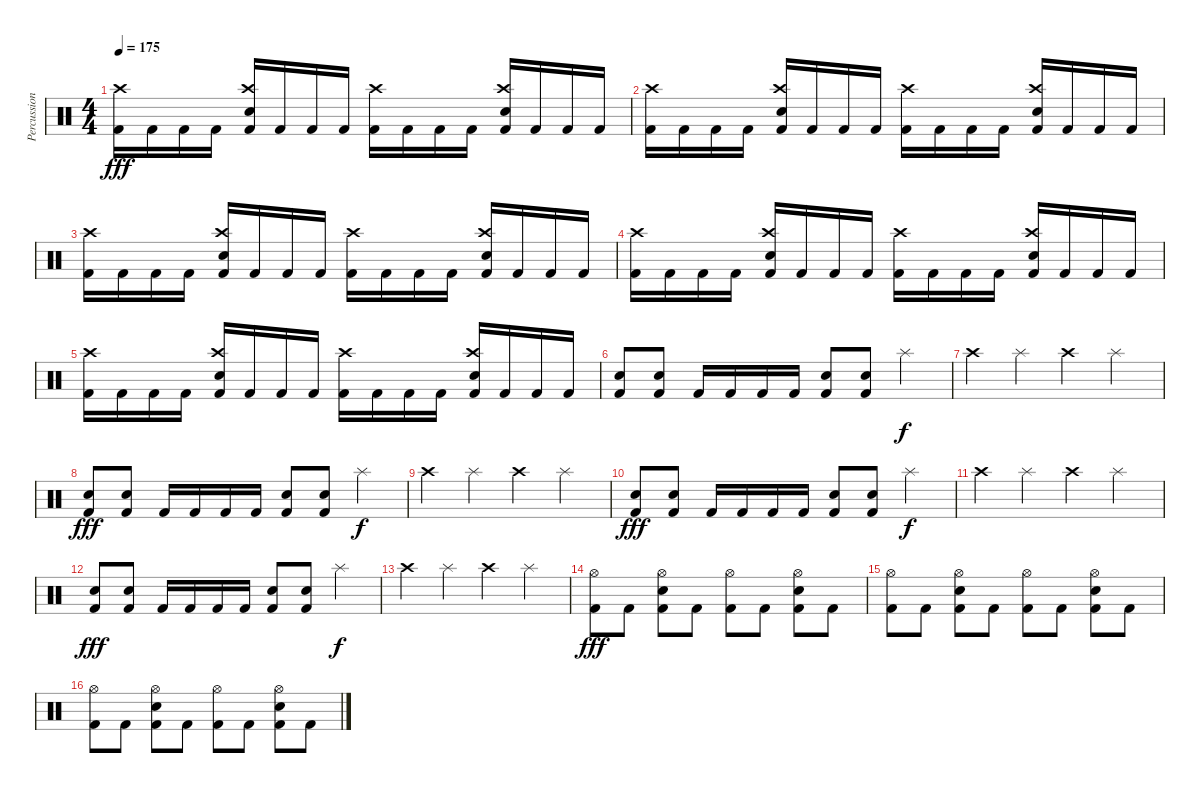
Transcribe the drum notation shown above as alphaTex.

\track ("Percussion" "Percussion") {instrument percussion}
\staff {score}
\articulation defaults
\ts (4 4)
\tempo 175
\clef neutral
\ks c
("Kick (hit) 2" "Crash high (hit)").16{dy fff} "Kick (hit) 2".16 "Kick (hit) 2".16 "Kick (hit) 2".16 ("Kick (hit) 2" "Electric Snare (hit)" "Crash high (hit)").16 "Kick (hit) 2".16 "Kick (hit) 2".16 "Kick (hit) 2".16 ("Kick (hit) 2" "Crash high (hit)").16 "Kick (hit) 2".16 "Kick (hit) 2".16 "Kick (hit) 2".16 ("Kick (hit) 2" "Electric Snare (hit)" "Crash high (hit)").16 "Kick (hit) 2".16 "Kick (hit) 2".16 "Kick (hit) 2".16 |
("Kick (hit) 2" "Crash high (hit)").16 "Kick (hit) 2".16 "Kick (hit) 2".16 "Kick (hit) 2".16 ("Kick (hit) 2" "Electric Snare (hit)" "Crash high (hit)").16 "Kick (hit) 2".16 "Kick (hit) 2".16 "Kick (hit) 2".16 ("Kick (hit) 2" "Crash high (hit)").16 "Kick (hit) 2".16 "Kick (hit) 2".16 "Kick (hit) 2".16 ("Kick (hit) 2" "Electric Snare (hit)" "Crash high (hit)").16 "Kick (hit) 2".16 "Kick (hit) 2".16 "Kick (hit) 2".16 |
("Kick (hit) 2" "Crash high (hit)").16 "Kick (hit) 2".16 "Kick (hit) 2".16 "Kick (hit) 2".16 ("Kick (hit) 2" "Electric Snare (hit)" "Crash high (hit)").16 "Kick (hit) 2".16 "Kick (hit) 2".16 "Kick (hit) 2".16 ("Kick (hit) 2" "Crash high (hit)").16 "Kick (hit) 2".16 "Kick (hit) 2".16 "Kick (hit) 2".16 ("Kick (hit) 2" "Electric Snare (hit)" "Crash high (hit)").16 "Kick (hit) 2".16 "Kick (hit) 2".16 "Kick (hit) 2".16 |
("Kick (hit) 2" "Crash high (hit)").16 "Kick (hit) 2".16 "Kick (hit) 2".16 "Kick (hit) 2".16 ("Kick (hit) 2" "Electric Snare (hit)" "Crash high (hit)").16 "Kick (hit) 2".16 "Kick (hit) 2".16 "Kick (hit) 2".16 ("Kick (hit) 2" "Crash high (hit)").16 "Kick (hit) 2".16 "Kick (hit) 2".16 "Kick (hit) 2".16 ("Kick (hit) 2" "Electric Snare (hit)" "Crash high (hit)").16 "Kick (hit) 2".16 "Kick (hit) 2".16 "Kick (hit) 2".16 |
("Kick (hit) 2" "Crash high (hit)").16 "Kick (hit) 2".16 "Kick (hit) 2".16 "Kick (hit) 2".16 ("Kick (hit) 2" "Electric Snare (hit)" "Crash high (hit)").16 "Kick (hit) 2".16 "Kick (hit) 2".16 "Kick (hit) 2".16 ("Kick (hit) 2" "Crash high (hit)").16 "Kick (hit) 2".16 "Kick (hit) 2".16 "Kick (hit) 2".16 ("Kick (hit) 2" "Electric Snare (hit)" "Crash high (hit)").16 "Kick (hit) 2".16 "Kick (hit) 2".16 "Kick (hit) 2".16 |
("Kick (hit) 2" "Electric Snare (hit)").8 ("Kick (hit) 2" "Electric Snare (hit)").8 "Kick (hit) 2".16 "Kick (hit) 2".16 "Kick (hit) 2".16 "Kick (hit) 2".16 ("Kick (hit) 2" "Electric Snare (hit)").8 ("Kick (hit) 2" "Electric Snare (hit)").8 "Splash (hit)".4{dy f} |
"Crash high (hit)".4 "Splash (hit)".4 "Crash high (hit)".4 "Splash (hit)".4 |
("Kick (hit) 2" "Electric Snare (hit)").8{dy fff} ("Kick (hit) 2" "Electric Snare (hit)").8 "Kick (hit) 2".16 "Kick (hit) 2".16 "Kick (hit) 2".16 "Kick (hit) 2".16 ("Kick (hit) 2" "Electric Snare (hit)").8 ("Kick (hit) 2" "Electric Snare (hit)").8 "Splash (hit)".4{dy f} |
"Crash high (hit)".4 "Splash (hit)".4 "Crash high (hit)".4 "Splash (hit)".4 |
("Kick (hit) 2" "Electric Snare (hit)").8{dy fff} ("Kick (hit) 2" "Electric Snare (hit)").8 "Kick (hit) 2".16 "Kick (hit) 2".16 "Kick (hit) 2".16 "Kick (hit) 2".16 ("Kick (hit) 2" "Electric Snare (hit)").8 ("Kick (hit) 2" "Electric Snare (hit)").8 "Splash (hit)".4{dy f} |
"Crash high (hit)".4 "Splash (hit)".4 "Crash high (hit)".4 "Splash (hit)".4 |
("Kick (hit) 2" "Electric Snare (hit)").8{dy fff} ("Kick (hit) 2" "Electric Snare (hit)").8 "Kick (hit) 2".16 "Kick (hit) 2".16 "Kick (hit) 2".16 "Kick (hit) 2".16 ("Kick (hit) 2" "Electric Snare (hit)").8 ("Kick (hit) 2" "Electric Snare (hit)").8 "Splash (hit)".4{dy f} |
"Crash high (hit)".4 "Splash (hit)".4 "Crash high (hit)".4 "Splash (hit)".4 |
("Kick (hit) 2" "Hi-Hat (open)").8{dy fff} "Kick (hit) 2".8 ("Kick (hit) 2" "Electric Snare (hit)" "Hi-Hat (open)").8 "Kick (hit) 2".8 ("Kick (hit) 2" "Hi-Hat (open)").8 "Kick (hit) 2".8 ("Kick (hit) 2" "Electric Snare (hit)" "Hi-Hat (open)").8 "Kick (hit) 2".8 |
("Kick (hit) 2" "Hi-Hat (open)").8 "Kick (hit) 2".8 ("Kick (hit) 2" "Electric Snare (hit)" "Hi-Hat (open)").8 "Kick (hit) 2".8 ("Kick (hit) 2" "Hi-Hat (open)").8 "Kick (hit) 2".8 ("Kick (hit) 2" "Electric Snare (hit)" "Hi-Hat (open)").8 "Kick (hit) 2".8 |
("Kick (hit) 2" "Hi-Hat (open)").8 "Kick (hit) 2".8 ("Kick (hit) 2" "Electric Snare (hit)" "Hi-Hat (open)").8 "Kick (hit) 2".8 ("Kick (hit) 2" "Hi-Hat (open)").8 "Kick (hit) 2".8 ("Kick (hit) 2" "Electric Snare (hit)" "Hi-Hat (open)").8 "Kick (hit) 2".8
